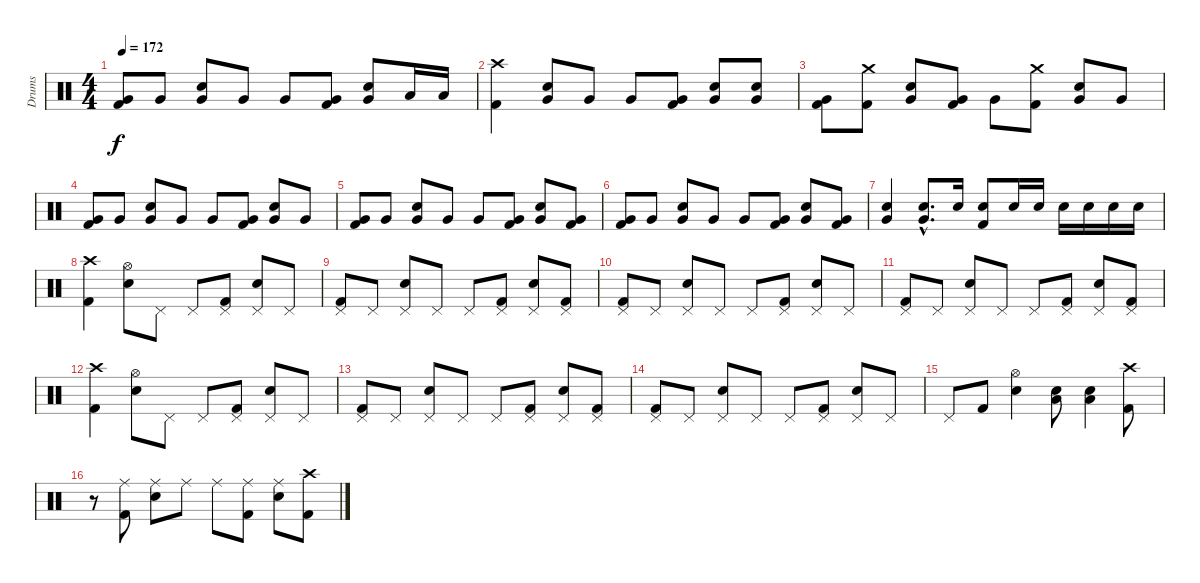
\track ("Drums" "Drums") {instrument percussion}
\staff {score}
\articulation defaults
\ts (4 4)
\tempo 172
\clef neutral
\ks c
("Very Low Tom (hit)" "Kick (hit) 2").8{dy f} "Very Low Tom (hit)".8 ("Very Low Tom (hit)" "Electric Snare (hit)").8 "Very Low Tom (hit)".8 "Very Low Tom (hit)".8 ("Very Low Tom (hit)" "Kick (hit) 2").8 ("Very Low Tom (hit)" "Electric Snare (hit)").8 "Low Tom (hit)".16 "Low Tom (hit)".16 |
("Crash high (hit)" "Kick (hit) 2").4 ("Very Low Tom (hit)" "Electric Snare (hit)").8 "Very Low Tom (hit)".8 "Very Low Tom (hit)".8 ("Very Low Tom (hit)" "Kick (hit) 2").8 ("Very Low Tom (hit)" "Electric Snare (hit)").8 ("Very Low Tom (hit)" "Electric Snare (hit)").8 |
("Very Low Tom (hit)" "Kick (hit) 2").8 ("Crash medium (hit)" "Kick (hit) 2").8 ("Very Low Tom (hit)" "Electric Snare (hit)").8 ("Very Low Tom (hit)" "Kick (hit) 2").8 "Very Low Tom (hit)".8 ("Crash medium (hit)" "Kick (hit) 2").8 ("Very Low Tom (hit)" "Electric Snare (hit)").8 "Very Low Tom (hit)".8 |
("Very Low Tom (hit)" "Kick (hit) 2").8 "Very Low Tom (hit)".8 ("Very Low Tom (hit)" "Electric Snare (hit)").8 "Very Low Tom (hit)".8 "Very Low Tom (hit)".8 ("Very Low Tom (hit)" "Kick (hit) 2").8 ("Very Low Tom (hit)" "Electric Snare (hit)").8 "Very Low Tom (hit)".8 |
("Very Low Tom (hit)" "Kick (hit) 2").8 "Very Low Tom (hit)".8 ("Very Low Tom (hit)" "Electric Snare (hit)").8 "Very Low Tom (hit)".8 "Very Low Tom (hit)".8 ("Very Low Tom (hit)" "Kick (hit) 2").8 ("Very Low Tom (hit)" "Electric Snare (hit)").8 ("Very Low Tom (hit)" "Kick (hit) 2").8 |
("Very Low Tom (hit)" "Kick (hit) 2").8 "Very Low Tom (hit)".8 ("Very Low Tom (hit)" "Electric Snare (hit)").8 "Very Low Tom (hit)".8 "Very Low Tom (hit)".8 ("Very Low Tom (hit)" "Kick (hit) 2").8 ("Very Low Tom (hit)" "Electric Snare (hit)").8 ("Very Low Tom (hit)" "Kick (hit) 2").8 |
("Very Low Tom (hit)" "Electric Snare (hit)").4 ("Very Low Tom (hit)"{hac} "Electric Snare (hit)"{hac}).8{d} "Electric Snare (hit)".16 ("Electric Snare (hit)" "Kick (hit) 2").8 "Electric Snare (hit)".16 "Electric Snare (hit)".16 "Electric Snare (hit)".16 "Electric Snare (hit)".16 "Electric Snare (hit)".16 "Electric Snare (hit)".16 |
("Crash high (hit)" "Kick (hit) 2").4 ("Hi-Hat (open)" "Electric Snare (hit)").8 "Pedal Hi-Hat (hit)".8 "Pedal Hi-Hat (hit)".8 ("Pedal Hi-Hat (hit)" "Kick (hit) 2").8 ("Pedal Hi-Hat (hit)" "Electric Snare (hit)").8 "Pedal Hi-Hat (hit)".8 |
("Pedal Hi-Hat (hit)" "Kick (hit) 2").8 "Pedal Hi-Hat (hit)".8 ("Pedal Hi-Hat (hit)" "Electric Snare (hit)").8 "Pedal Hi-Hat (hit)".8 "Pedal Hi-Hat (hit)".8 ("Pedal Hi-Hat (hit)" "Kick (hit) 2").8 ("Pedal Hi-Hat (hit)" "Electric Snare (hit)").8 ("Pedal Hi-Hat (hit)" "Kick (hit) 2").8 |
("Pedal Hi-Hat (hit)" "Kick (hit) 2").8 "Pedal Hi-Hat (hit)".8 ("Pedal Hi-Hat (hit)" "Electric Snare (hit)").8 "Pedal Hi-Hat (hit)".8 "Pedal Hi-Hat (hit)".8 ("Pedal Hi-Hat (hit)" "Kick (hit) 2").8 ("Pedal Hi-Hat (hit)" "Electric Snare (hit)").8 "Pedal Hi-Hat (hit)".8 |
("Pedal Hi-Hat (hit)" "Kick (hit) 2").8 "Pedal Hi-Hat (hit)".8 ("Pedal Hi-Hat (hit)" "Electric Snare (hit)").8 "Pedal Hi-Hat (hit)".8 "Pedal Hi-Hat (hit)".8 ("Pedal Hi-Hat (hit)" "Kick (hit) 2").8 ("Pedal Hi-Hat (hit)" "Electric Snare (hit)").8 ("Pedal Hi-Hat (hit)" "Kick (hit) 2").8 |
("Crash high (hit)" "Kick (hit) 2").4 ("Hi-Hat (open)" "Electric Snare (hit)").8 "Pedal Hi-Hat (hit)".8 "Pedal Hi-Hat (hit)".8 ("Pedal Hi-Hat (hit)" "Kick (hit) 2").8 ("Pedal Hi-Hat (hit)" "Electric Snare (hit)").8 "Pedal Hi-Hat (hit)".8 |
("Pedal Hi-Hat (hit)" "Kick (hit) 2").8 "Pedal Hi-Hat (hit)".8 ("Pedal Hi-Hat (hit)" "Electric Snare (hit)").8 "Pedal Hi-Hat (hit)".8 "Pedal Hi-Hat (hit)".8 ("Pedal Hi-Hat (hit)" "Kick (hit) 2").8 ("Pedal Hi-Hat (hit)" "Electric Snare (hit)").8 ("Pedal Hi-Hat (hit)" "Kick (hit) 2").8 |
("Pedal Hi-Hat (hit)" "Kick (hit) 2").8 "Pedal Hi-Hat (hit)".8 ("Pedal Hi-Hat (hit)" "Electric Snare (hit)").8 "Pedal Hi-Hat (hit)".8 "Pedal Hi-Hat (hit)".8 ("Pedal Hi-Hat (hit)" "Kick (hit) 2").8 ("Pedal Hi-Hat (hit)" "Electric Snare (hit)").8 "Pedal Hi-Hat (hit)".8 |
"Pedal Hi-Hat (hit)".8 "Kick (hit) 2".8 ("Hi-Hat (open)" "Electric Snare (hit)").4 ("Low Tom (hit)" "Electric Snare (hit)").8 ("Low Tom (hit)" "Electric Snare (hit)").4 ("Crash high (hit)" "Kick (hit) 2").8 |
r.8 ("Ride (middle)" "Kick (hit) 2").8 ("Ride (middle)" "Electric Snare (hit)").8 "Ride (middle)".8 "Ride (middle)".8 ("Ride (middle)" "Kick (hit) 2").8 ("Ride (middle)" "Electric Snare (hit)").8 ("Crash high (hit)" "Kick (hit) 2").8
